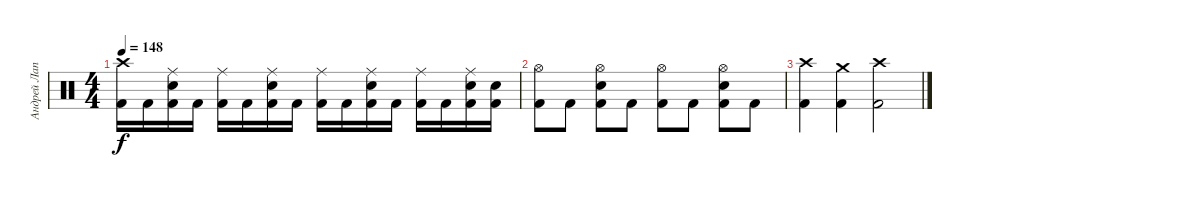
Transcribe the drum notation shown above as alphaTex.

\track ("Андрей Лаптев" "Андрей Лап") {instrument percussion}
\staff {score}
\articulation defaults
\ts (4 4)
\tempo 148
\clef neutral
\ks c
("Crash high (hit)" "Kick (hit) 2").16{dy f} "Kick (hit) 2".16 ("Ride (middle)" "Electric Snare (hit)" "Kick (hit) 2").16 "Kick (hit) 2".16 ("Ride (middle)" "Kick (hit) 2").16 "Kick (hit) 2".16 ("Ride (middle)" "Electric Snare (hit)" "Kick (hit) 2").16 "Kick (hit) 2".16 ("Ride (middle)" "Kick (hit) 2").16 "Kick (hit) 2".16 ("Ride (middle)" "Electric Snare (hit)" "Kick (hit) 2").16 "Kick (hit) 2".16 ("Ride (middle)" "Kick (hit) 2").16 "Kick (hit) 2".16 ("Ride (middle)" "Electric Snare (hit)" "Kick (hit) 2").16 ("Electric Snare (hit)" "Kick (hit) 2").16 |
("Hi-Hat (open)" "Kick (hit) 2").8 "Kick (hit) 2".8 ("Hi-Hat (open)" "Electric Snare (hit)" "Kick (hit) 2").8 "Kick (hit) 2".8 ("Hi-Hat (open)" "Kick (hit) 2").8 "Kick (hit) 2".8 ("Hi-Hat (open)" "Electric Snare (hit)" "Kick (hit) 2").8 "Kick (hit) 2".8 |
("Crash high (hit)" "Kick (hit) 2").4 ("Crash medium (hit)" "Kick (hit) 2").4 ("Crash high (hit)" "Kick (hit) 2").2
